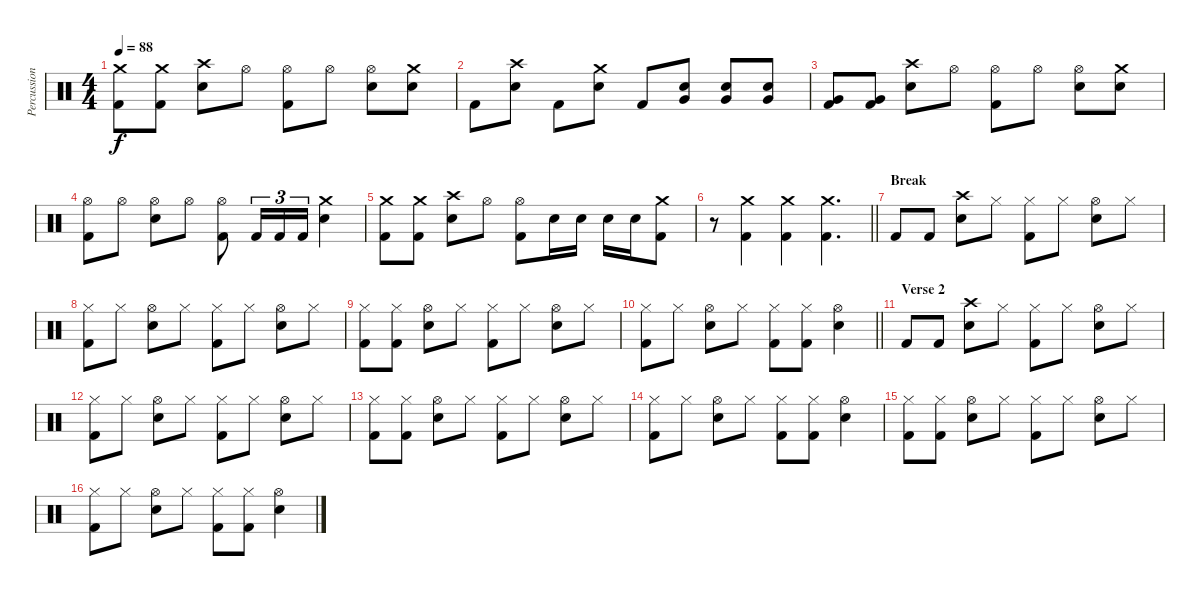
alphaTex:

\track ("Percussions" "Percussion") {instrument percussion}
\staff {score}
\articulation defaults
\ts (4 4)
\tempo 88
\clef neutral
\ks c
("Crash medium (hit)" "Kick (hit) 2").8{dy f} ("Crash medium (hit)" "Kick (hit) 2").8 ("Crash high (hit)" "Snare (hit) 2").8 "Hi-Hat (open)".8 ("Hi-Hat (open)" "Kick (hit) 2").8 "Hi-Hat (open)".8 ("Hi-Hat (open)" "Snare (hit) 2").8 ("Crash medium (hit)" "Snare (hit) 2").8 |
"Kick (hit) 2".8 ("Crash high (hit)" "Snare (hit) 2").8 "Kick (hit) 2".8 ("Crash medium (hit)" "Snare (hit) 2").8 "Kick (hit) 2".8 ("Snare (hit) 2" "Very Low Tom (hit)").8 ("Snare (hit) 2" "Very Low Tom (hit)").8 ("Snare (hit) 2" "Very Low Tom (hit)").8 |
("Very Low Tom (hit)" "Kick (hit) 2").8 ("Very Low Tom (hit)" "Kick (hit) 2").8 ("Crash high (hit)" "Snare (hit) 2").8 "Hi-Hat (open)".8 ("Hi-Hat (open)" "Kick (hit) 2").8 "Hi-Hat (open)".8 ("Hi-Hat (open)" "Snare (hit) 2").8 ("Crash medium (hit)" "Snare (hit) 2").8 |
("Hi-Hat (open)" "Kick (hit) 2").8 "Hi-Hat (open)".8 ("Hi-Hat (open)" "Snare (hit) 2").8 "Hi-Hat (open)".8 ("Hi-Hat (open)" "Kick (hit) 2").8 "Kick (hit) 2".16{tu (3 2)} "Kick (hit) 2".16{tu (3 2)} "Kick (hit) 2".16{tu (3 2)} ("Crash medium (hit)" "Snare (hit) 2").4 |
("Crash medium (hit)" "Kick (hit) 2").8 ("Crash medium (hit)" "Kick (hit) 2").8 ("Crash high (hit)" "Snare (hit) 2").8 "Hi-Hat (open)".8 ("Hi-Hat (open)" "Kick (hit) 2").8 "Snare (hit) 2".16 "Snare (hit) 2".16 "Snare (hit) 2".16 "Snare (hit) 2".16 ("Crash medium (hit)" "Kick (hit) 2").8 |
\barLineRight lightlight
r.8 ("Crash medium (hit)" "Kick (hit) 2").4 ("Crash medium (hit)" "Kick (hit) 2").4 ("Crash medium (hit)" "Kick (hit) 2").4{d} |
\section ("" "Break")
"Kick (hit) 2".8 "Kick (hit) 2".8 ("Crash high (hit)" "Snare (hit) 2").8 "Hi-Hat (closed)".8 ("Hi-Hat (closed)" "Kick (hit) 2").8 "Hi-Hat (closed)".8 ("Hi-Hat (open)" "Snare (hit) 2").8 "Hi-Hat (closed)".8 |
("Hi-Hat (closed)" "Kick (hit) 2").8 "Hi-Hat (closed)".8 ("Hi-Hat (open)" "Snare (hit) 2").8 "Hi-Hat (closed)".8 ("Hi-Hat (closed)" "Kick (hit) 2").8 "Hi-Hat (closed)".8 ("Hi-Hat (open)" "Snare (hit) 2").8 "Hi-Hat (closed)".8 |
("Hi-Hat (closed)" "Kick (hit) 2").8 ("Hi-Hat (closed)" "Kick (hit) 2").8 ("Hi-Hat (open)" "Snare (hit) 2").8 "Hi-Hat (closed)".8 ("Hi-Hat (closed)" "Kick (hit) 2").8 "Hi-Hat (closed)".8 ("Hi-Hat (open)" "Snare (hit) 2").8 "Hi-Hat (closed)".8 |
\barLineRight lightlight
("Hi-Hat (closed)" "Kick (hit) 2").8 "Hi-Hat (closed)".8 ("Hi-Hat (open)" "Snare (hit) 2").8 "Hi-Hat (closed)".8 ("Hi-Hat (closed)" "Kick (hit) 2").8 ("Hi-Hat (closed)" "Kick (hit) 2").8 ("Hi-Hat (open)" "Snare (hit) 2").4 |
\section ("" "Verse 2")
"Kick (hit) 2".8 "Kick (hit) 2".8 ("Crash high (hit)" "Snare (hit) 2").8 "Hi-Hat (closed)".8 ("Hi-Hat (closed)" "Kick (hit) 2").8 "Hi-Hat (closed)".8 ("Hi-Hat (open)" "Snare (hit) 2").8 "Hi-Hat (closed)".8 |
("Hi-Hat (closed)" "Kick (hit) 2").8 "Hi-Hat (closed)".8 ("Hi-Hat (open)" "Snare (hit) 2").8 "Hi-Hat (closed)".8 ("Hi-Hat (closed)" "Kick (hit) 2").8 "Hi-Hat (closed)".8 ("Hi-Hat (open)" "Snare (hit) 2").8 "Hi-Hat (closed)".8 |
("Hi-Hat (closed)" "Kick (hit) 2").8 ("Hi-Hat (closed)" "Kick (hit) 2").8 ("Hi-Hat (open)" "Snare (hit) 2").8 "Hi-Hat (closed)".8 ("Hi-Hat (closed)" "Kick (hit) 2").8 "Hi-Hat (closed)".8 ("Hi-Hat (open)" "Snare (hit) 2").8 "Hi-Hat (closed)".8 |
("Hi-Hat (closed)" "Kick (hit) 2").8 "Hi-Hat (closed)".8 ("Hi-Hat (open)" "Snare (hit) 2").8 "Hi-Hat (closed)".8 ("Hi-Hat (closed)" "Kick (hit) 2").8 ("Hi-Hat (closed)" "Kick (hit) 2").8 ("Hi-Hat (open)" "Snare (hit) 2").4 |
("Hi-Hat (closed)" "Kick (hit) 2").8 ("Hi-Hat (closed)" "Kick (hit) 2").8 ("Hi-Hat (open)" "Snare (hit) 2").8 "Hi-Hat (closed)".8 ("Hi-Hat (closed)" "Kick (hit) 2").8 "Hi-Hat (closed)".8 ("Hi-Hat (open)" "Snare (hit) 2").8 "Hi-Hat (closed)".8 |
("Hi-Hat (closed)" "Kick (hit) 2").8 "Hi-Hat (closed)".8 ("Hi-Hat (open)" "Snare (hit) 2").8 "Hi-Hat (closed)".8 ("Hi-Hat (closed)" "Kick (hit) 2").8 ("Hi-Hat (closed)" "Kick (hit) 2").8 ("Hi-Hat (open)" "Snare (hit) 2").4
